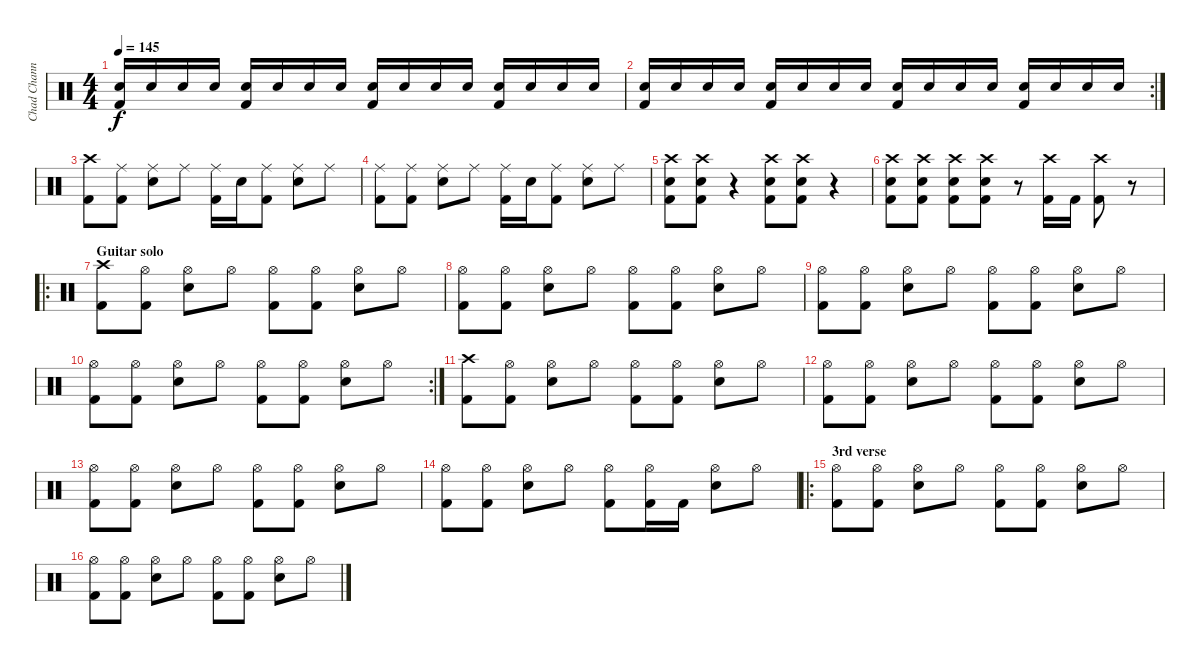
\track ("Chad Channing" "Chad Chann") {instrument percussion}
\staff {score}
\articulation defaults
\ts (4 4)
\tempo 145
\clef neutral
\ks c
("Electric Snare (hit)" "Kick (hit) 2").16{dy f} "Electric Snare (hit)".16 "Electric Snare (hit)".16 "Electric Snare (hit)".16 ("Electric Snare (hit)" "Kick (hit) 2").16 "Electric Snare (hit)".16 "Electric Snare (hit)".16 "Electric Snare (hit)".16 ("Electric Snare (hit)" "Kick (hit) 2").16 "Electric Snare (hit)".16 "Electric Snare (hit)".16 "Electric Snare (hit)".16 ("Electric Snare (hit)" "Kick (hit) 2").16 "Electric Snare (hit)".16 "Electric Snare (hit)".16 "Electric Snare (hit)".16 |
\rc 2
("Electric Snare (hit)" "Kick (hit) 2").16 "Electric Snare (hit)".16 "Electric Snare (hit)".16 "Electric Snare (hit)".16 ("Electric Snare (hit)" "Kick (hit) 2").16 "Electric Snare (hit)".16 "Electric Snare (hit)".16 "Electric Snare (hit)".16 ("Electric Snare (hit)" "Kick (hit) 2").16 "Electric Snare (hit)".16 "Electric Snare (hit)".16 "Electric Snare (hit)".16 ("Electric Snare (hit)" "Kick (hit) 2").16 "Electric Snare (hit)".16 "Electric Snare (hit)".16 "Electric Snare (hit)".16 |
("Crash high (hit)" "Kick (hit) 2").8 ("Ride (middle)" "Kick (hit) 2").8 ("Ride (middle)" "Electric Snare (hit)").8 "Ride (middle)".8 ("Ride (middle)" "Kick (hit) 2").16 "Electric Snare (hit)".16 ("Ride (middle)" "Kick (hit) 2").8 ("Ride (middle)" "Electric Snare (hit)").8 "Ride (middle)".8 |
("Ride (middle)" "Kick (hit) 2").8 ("Ride (middle)" "Kick (hit) 2").8 ("Ride (middle)" "Electric Snare (hit)").8 "Ride (middle)".8 ("Ride (middle)" "Kick (hit) 2").16 "Electric Snare (hit)".16 ("Ride (middle)" "Kick (hit) 2").8 ("Ride (middle)" "Electric Snare (hit)").8 "Ride (middle)".8 |
("Crash high (hit)" "Electric Snare (hit)" "Kick (hit) 2").8 ("Crash high (hit)" "Electric Snare (hit)" "Kick (hit) 2").8 r.4 ("Crash high (hit)" "Electric Snare (hit)" "Kick (hit) 2").8 ("Crash high (hit)" "Electric Snare (hit)" "Kick (hit) 2").8 r.4 |
("Crash high (hit)" "Electric Snare (hit)" "Kick (hit) 2").8 ("Crash high (hit)" "Electric Snare (hit)" "Kick (hit) 2").8 ("Crash high (hit)" "Electric Snare (hit)" "Kick (hit) 2").8 ("Crash high (hit)" "Electric Snare (hit)" "Kick (hit) 2").8 r.8 ("Crash high (hit)" "Kick (hit) 2").16 "Kick (hit) 2".16 ("Crash high (hit)" "Kick (hit) 2").8 r.8 |
\ro
\section ("" "Guitar solo")
("Crash high (hit)" "Kick (hit) 2").8 ("Hi-Hat (open)" "Kick (hit) 2").8 ("Hi-Hat (open)" "Electric Snare (hit)").8 "Hi-Hat (open)".8 ("Hi-Hat (open)" "Kick (hit) 2").8 ("Hi-Hat (open)" "Kick (hit) 2").8 ("Hi-Hat (open)" "Electric Snare (hit)").8 "Hi-Hat (open)".8 |
("Hi-Hat (open)" "Kick (hit) 2").8 ("Hi-Hat (open)" "Kick (hit) 2").8 ("Hi-Hat (open)" "Electric Snare (hit)").8 "Hi-Hat (open)".8 ("Hi-Hat (open)" "Kick (hit) 2").8 ("Hi-Hat (open)" "Kick (hit) 2").8 ("Hi-Hat (open)" "Electric Snare (hit)").8 "Hi-Hat (open)".8 |
("Hi-Hat (open)" "Kick (hit) 2").8 ("Hi-Hat (open)" "Kick (hit) 2").8 ("Hi-Hat (open)" "Electric Snare (hit)").8 "Hi-Hat (open)".8 ("Hi-Hat (open)" "Kick (hit) 2").8 ("Hi-Hat (open)" "Kick (hit) 2").8 ("Hi-Hat (open)" "Electric Snare (hit)").8 "Hi-Hat (open)".8 |
\rc 2
("Hi-Hat (open)" "Kick (hit) 2").8 ("Hi-Hat (open)" "Kick (hit) 2").8 ("Hi-Hat (open)" "Electric Snare (hit)").8 "Hi-Hat (open)".8 ("Hi-Hat (open)" "Kick (hit) 2").8 ("Hi-Hat (open)" "Kick (hit) 2").8 ("Hi-Hat (open)" "Electric Snare (hit)").8 "Hi-Hat (open)".8 |
("Crash high (hit)" "Kick (hit) 2").8 ("Hi-Hat (open)" "Kick (hit) 2").8 ("Hi-Hat (open)" "Electric Snare (hit)").8 "Hi-Hat (open)".8 ("Hi-Hat (open)" "Kick (hit) 2").8 ("Hi-Hat (open)" "Kick (hit) 2").8 ("Hi-Hat (open)" "Electric Snare (hit)").8 "Hi-Hat (open)".8 |
("Hi-Hat (open)" "Kick (hit) 2").8 ("Hi-Hat (open)" "Kick (hit) 2").8 ("Hi-Hat (open)" "Electric Snare (hit)").8 "Hi-Hat (open)".8 ("Hi-Hat (open)" "Kick (hit) 2").8 ("Hi-Hat (open)" "Kick (hit) 2").8 ("Hi-Hat (open)" "Electric Snare (hit)").8 "Hi-Hat (open)".8 |
("Hi-Hat (open)" "Kick (hit) 2").8 ("Hi-Hat (open)" "Kick (hit) 2").8 ("Hi-Hat (open)" "Electric Snare (hit)").8 "Hi-Hat (open)".8 ("Hi-Hat (open)" "Kick (hit) 2").8 ("Hi-Hat (open)" "Kick (hit) 2").8 ("Hi-Hat (open)" "Electric Snare (hit)").8 "Hi-Hat (open)".8 |
("Hi-Hat (open)" "Kick (hit) 2").8 ("Hi-Hat (open)" "Kick (hit) 2").8 ("Hi-Hat (open)" "Electric Snare (hit)").8 "Hi-Hat (open)".8 ("Hi-Hat (open)" "Kick (hit) 2").8 ("Hi-Hat (open)" "Kick (hit) 2").16 "Kick (hit) 2".16 ("Hi-Hat (open)" "Electric Snare (hit)").8 "Hi-Hat (open)".8 |
\ro
\section ("" "3rd verse")
("Hi-Hat (open)" "Kick (hit) 2").8 ("Hi-Hat (open)" "Kick (hit) 2").8 ("Hi-Hat (open)" "Electric Snare (hit)").8 "Hi-Hat (open)".8 ("Hi-Hat (open)" "Kick (hit) 2").8 ("Hi-Hat (open)" "Kick (hit) 2").8 ("Hi-Hat (open)" "Electric Snare (hit)").8 "Hi-Hat (open)".8 |
("Hi-Hat (open)" "Kick (hit) 2").8 ("Hi-Hat (open)" "Kick (hit) 2").8 ("Hi-Hat (open)" "Electric Snare (hit)").8 "Hi-Hat (open)".8 ("Hi-Hat (open)" "Kick (hit) 2").8 ("Hi-Hat (open)" "Kick (hit) 2").8 ("Hi-Hat (open)" "Electric Snare (hit)").8 "Hi-Hat (open)".8
